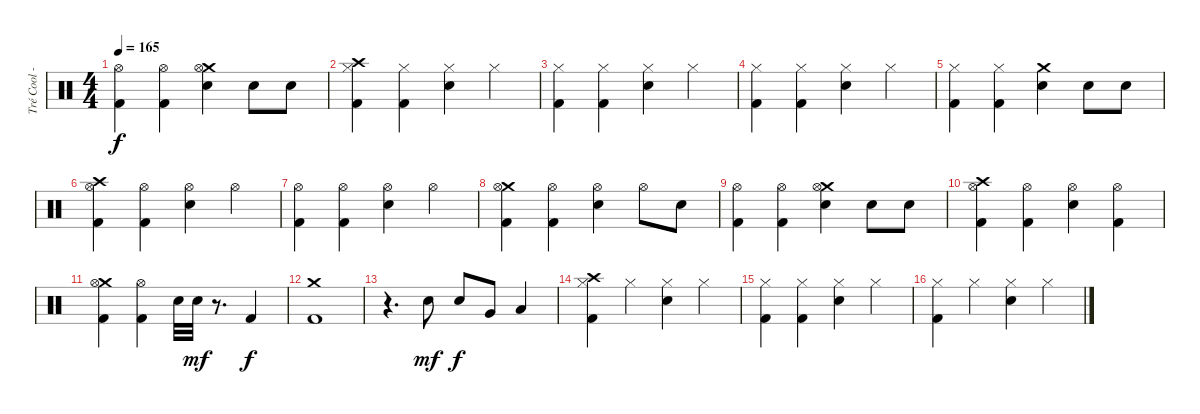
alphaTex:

\track ("Tré Cool - Drums" "Tré Cool -") {instrument percussion}
\staff {score}
\articulation defaults
\ts (4 4)
\tempo 165
\clef neutral
\ks c
("Hi-Hat (open)" "Kick (hit) 2").4{dy f} ("Hi-Hat (open)" "Kick (hit) 2").4 ("Crash medium (hit)" "Hi-Hat (open)" "Electric Snare (hit)").4 "Electric Snare (hit)".8 "Electric Snare (hit)".8 |
("Crash high (hit)" "Hi-Hat (closed)" "Kick (hit) 2").4 ("Hi-Hat (closed)" "Kick (hit) 2").4 ("Hi-Hat (closed)" "Electric Snare (hit)").4 "Hi-Hat (closed)".4 |
("Hi-Hat (closed)" "Kick (hit) 2").4 ("Hi-Hat (closed)" "Kick (hit) 2").4 ("Hi-Hat (closed)" "Electric Snare (hit)").4 "Hi-Hat (closed)".4 |
("Hi-Hat (closed)" "Kick (hit) 2").4 ("Hi-Hat (closed)" "Kick (hit) 2").4 ("Hi-Hat (closed)" "Electric Snare (hit)").4 "Hi-Hat (closed)".4 |
("Hi-Hat (closed)" "Kick (hit) 2").4 ("Hi-Hat (closed)" "Kick (hit) 2").4 ("Crash medium (hit)" "Electric Snare (hit)").4 "Electric Snare (hit)".8 "Electric Snare (hit)".8 |
("Crash high (hit)" "Hi-Hat (open)" "Kick (hit) 2").4 ("Hi-Hat (open)" "Kick (hit) 2").4 ("Hi-Hat (open)" "Electric Snare (hit)").4 "Hi-Hat (open)".4 |
("Hi-Hat (open)" "Kick (hit) 2").4 ("Hi-Hat (open)" "Kick (hit) 2").4 ("Hi-Hat (open)" "Electric Snare (hit)").4 "Hi-Hat (open)".4 |
("Crash medium (hit)" "Hi-Hat (open)" "Kick (hit) 2").4 ("Hi-Hat (open)" "Kick (hit) 2").4 ("Hi-Hat (open)" "Electric Snare (hit)").4 "Hi-Hat (open)".8 "Electric Snare (hit)".8 |
("Hi-Hat (open)" "Kick (hit) 2").4 ("Hi-Hat (open)" "Kick (hit) 2").4 ("Crash medium (hit)" "Hi-Hat (open)" "Electric Snare (hit)").4 "Electric Snare (hit)".8 "Electric Snare (hit)".8 |
("Crash high (hit)" "Hi-Hat (open)" "Kick (hit) 2").4 ("Hi-Hat (open)" "Kick (hit) 2").4 ("Hi-Hat (open)" "Electric Snare (hit)").4 ("Hi-Hat (open)" "Kick (hit) 2").4 |
("Crash medium (hit)" "Hi-Hat (open)" "Kick (hit) 2").4 ("Hi-Hat (open)" "Kick (hit) 2").4 "Electric Snare (hit)".32 "Electric Snare (hit)".32{dy mf} r.8{d} "Kick (hit) 2".4{dy f} |
("Crash medium (hit)" "Kick (hit) 2").1 |
r.4{d} "Electric Snare (hit)".8{dy mf} "Electric Snare (hit)".8{dy f} "Very Low Tom (hit)".8 "Low Floor Tom (hit)".4 |
("Crash high (hit)" "Hi-Hat (closed)" "Kick (hit) 2").4 "Hi-Hat (closed)".4 ("Hi-Hat (closed)" "Electric Snare (hit)").4 "Hi-Hat (closed)".4 |
("Hi-Hat (closed)" "Kick (hit) 2").4 ("Hi-Hat (closed)" "Kick (hit) 2").4 ("Hi-Hat (closed)" "Electric Snare (hit)").4 "Hi-Hat (closed)".4 |
("Hi-Hat (closed)" "Kick (hit) 2").4 "Hi-Hat (closed)".4 ("Hi-Hat (closed)" "Electric Snare (hit)").4 "Hi-Hat (closed)".4
